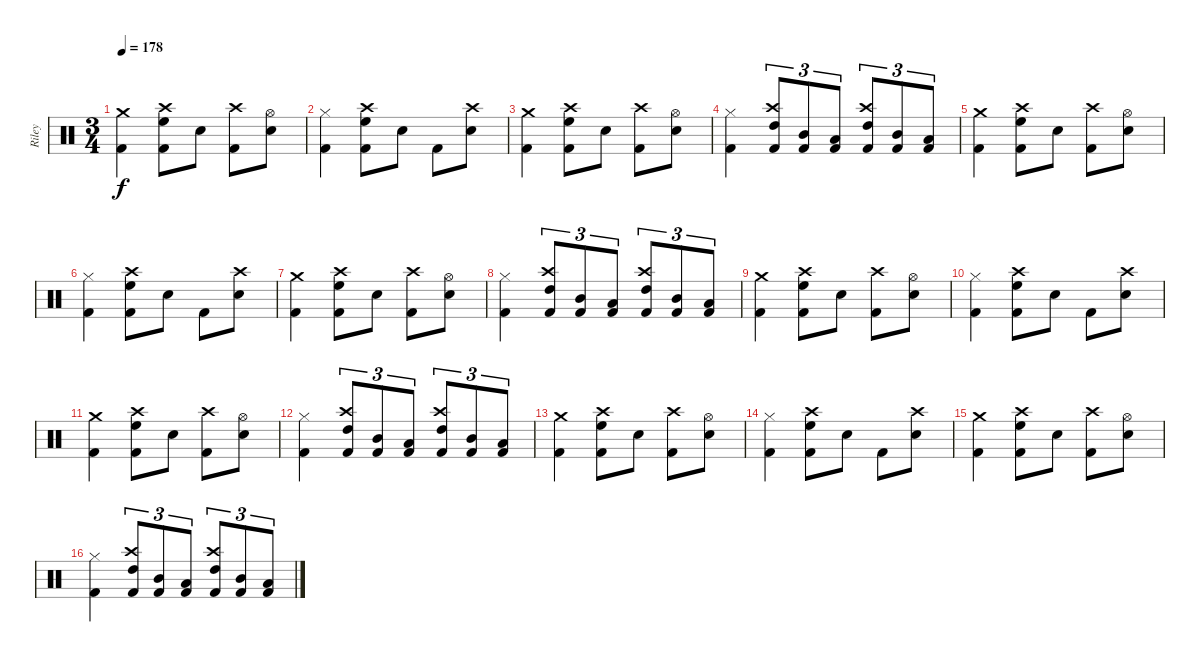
\track ("Riley" "Riley") {instrument percussion}
\staff {score}
\articulation defaults
\ts (3 4)
\tempo 178
\clef neutral
\ks c
("Crash medium (hit)" "Kick (hit) 2").4{dy f} ("Crash high (hit)" "High Floor Tom (hit)" "Kick (hit) 2").8 "Snare (hit) 2".8 ("Crash high (hit)" "Kick (hit) 2").8 ("Hi-Hat (open)" "Snare (hit) 2").8 |
("Hi-Hat (closed)" "Kick (hit) 2").4 ("Crash high (hit)" "High Floor Tom (hit)" "Kick (hit) 2").8 "Snare (hit) 2".8 "Kick (hit) 2".8 ("Crash high (hit)" "Snare (hit) 2").8 |
("Crash medium (hit)" "Kick (hit) 2").4 ("Crash high (hit)" "High Floor Tom (hit)" "Kick (hit) 2").8 "Snare (hit) 2".8 ("Crash high (hit)" "Kick (hit) 2").8 ("Hi-Hat (open)" "Snare (hit) 2").8 |
("Hi-Hat (closed)" "Kick (hit) 2").4 ("Crash high (hit)" "High Tom (hit)" "Kick (hit) 2").8{tu (3 2)} ("Mid Tom (hit)" "Kick (hit) 2").8{tu (3 2)} ("Low Tom (hit)" "Kick (hit) 2").8{tu (3 2)} ("Crash high (hit)" "High Tom (hit)" "Kick (hit) 2").8{tu (3 2)} ("Mid Tom (hit)" "Kick (hit) 2").8{tu (3 2)} ("Low Tom (hit)" "Kick (hit) 2").8{tu (3 2)} |
("Crash medium (hit)" "Kick (hit) 2").4 ("Crash high (hit)" "High Floor Tom (hit)" "Kick (hit) 2").8 "Snare (hit) 2".8 ("Crash high (hit)" "Kick (hit) 2").8 ("Hi-Hat (open)" "Snare (hit) 2").8 |
("Hi-Hat (closed)" "Kick (hit) 2").4 ("Crash high (hit)" "High Floor Tom (hit)" "Kick (hit) 2").8 "Snare (hit) 2".8 "Kick (hit) 2".8 ("Crash high (hit)" "Snare (hit) 2").8 |
("Crash medium (hit)" "Kick (hit) 2").4 ("Crash high (hit)" "High Floor Tom (hit)" "Kick (hit) 2").8 "Snare (hit) 2".8 ("Crash high (hit)" "Kick (hit) 2").8 ("Hi-Hat (open)" "Snare (hit) 2").8 |
("Hi-Hat (closed)" "Kick (hit) 2").4 ("Crash high (hit)" "High Tom (hit)" "Kick (hit) 2").8{tu (3 2)} ("Mid Tom (hit)" "Kick (hit) 2").8{tu (3 2)} ("Low Tom (hit)" "Kick (hit) 2").8{tu (3 2)} ("Crash high (hit)" "High Tom (hit)" "Kick (hit) 2").8{tu (3 2)} ("Mid Tom (hit)" "Kick (hit) 2").8{tu (3 2)} ("Low Tom (hit)" "Kick (hit) 2").8{tu (3 2)} |
("Crash medium (hit)" "Kick (hit) 2").4 ("Crash high (hit)" "High Floor Tom (hit)" "Kick (hit) 2").8 "Snare (hit) 2".8 ("Crash high (hit)" "Kick (hit) 2").8 ("Hi-Hat (open)" "Snare (hit) 2").8 |
("Hi-Hat (closed)" "Kick (hit) 2").4 ("Crash high (hit)" "High Floor Tom (hit)" "Kick (hit) 2").8 "Snare (hit) 2".8 "Kick (hit) 2".8 ("Crash high (hit)" "Snare (hit) 2").8 |
("Crash medium (hit)" "Kick (hit) 2").4 ("Crash high (hit)" "High Floor Tom (hit)" "Kick (hit) 2").8 "Snare (hit) 2".8 ("Crash high (hit)" "Kick (hit) 2").8 ("Hi-Hat (open)" "Snare (hit) 2").8 |
("Hi-Hat (closed)" "Kick (hit) 2").4 ("Crash high (hit)" "High Tom (hit)" "Kick (hit) 2").8{tu (3 2)} ("Mid Tom (hit)" "Kick (hit) 2").8{tu (3 2)} ("Low Tom (hit)" "Kick (hit) 2").8{tu (3 2)} ("Crash high (hit)" "High Tom (hit)" "Kick (hit) 2").8{tu (3 2)} ("Mid Tom (hit)" "Kick (hit) 2").8{tu (3 2)} ("Low Tom (hit)" "Kick (hit) 2").8{tu (3 2)} |
("Crash medium (hit)" "Kick (hit) 2").4 ("Crash high (hit)" "High Floor Tom (hit)" "Kick (hit) 2").8 "Snare (hit) 2".8 ("Crash high (hit)" "Kick (hit) 2").8 ("Hi-Hat (open)" "Snare (hit) 2").8 |
("Hi-Hat (closed)" "Kick (hit) 2").4 ("Crash high (hit)" "High Floor Tom (hit)" "Kick (hit) 2").8 "Snare (hit) 2".8 "Kick (hit) 2".8 ("Crash high (hit)" "Snare (hit) 2").8 |
("Crash medium (hit)" "Kick (hit) 2").4 ("Crash high (hit)" "High Floor Tom (hit)" "Kick (hit) 2").8 "Snare (hit) 2".8 ("Crash high (hit)" "Kick (hit) 2").8 ("Hi-Hat (open)" "Snare (hit) 2").8 |
("Hi-Hat (closed)" "Kick (hit) 2").4 ("Crash high (hit)" "High Tom (hit)" "Kick (hit) 2").8{tu (3 2)} ("Mid Tom (hit)" "Kick (hit) 2").8{tu (3 2)} ("Low Tom (hit)" "Kick (hit) 2").8{tu (3 2)} ("Crash high (hit)" "High Tom (hit)" "Kick (hit) 2").8{tu (3 2)} ("Mid Tom (hit)" "Kick (hit) 2").8{tu (3 2)} ("Low Tom (hit)" "Kick (hit) 2").8{tu (3 2)}
